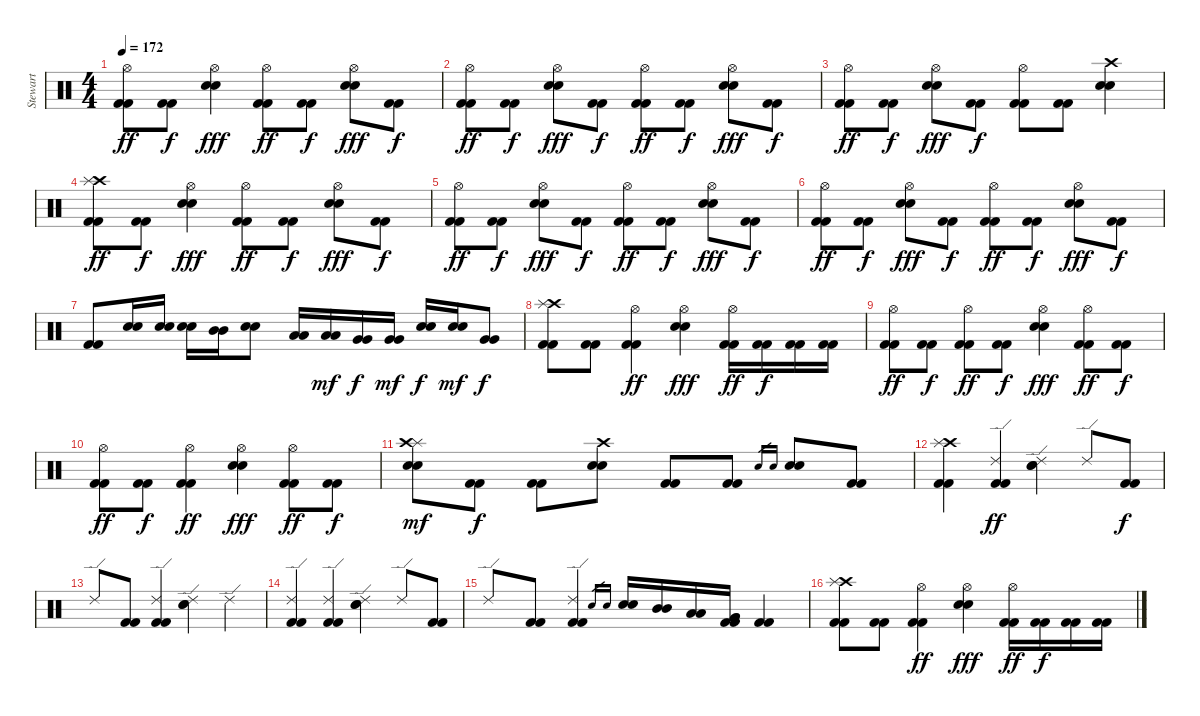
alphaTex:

\track ("Stewart" "Stewart") {instrument percussion}
\staff {score}
\articulation defaults
\ts (4 4)
\tempo 172
\clef neutral
\ks c
("Hi-Hat (open)" "Kick (hit) 2" "Kick (hit) 2").8{dy ff} ("Kick (hit) 2" "Kick (hit) 2").8{dy f} ("Hi-Hat (open)" "Electric Snare (hit)" "Electric Snare (hit)").4{dy fff} ("Hi-Hat (open)" "Kick (hit) 2" "Kick (hit) 2").8{dy ff} ("Kick (hit) 2" "Kick (hit) 2").8{dy f} ("Hi-Hat (open)" "Electric Snare (hit)" "Electric Snare (hit)").8{dy fff} ("Kick (hit) 2" "Kick (hit) 2").8{dy f} |
("Hi-Hat (open)" "Kick (hit) 2" "Kick (hit) 2").8{dy ff} ("Kick (hit) 2" "Kick (hit) 2").8{dy f} ("Hi-Hat (open)" "Electric Snare (hit)" "Electric Snare (hit)").8{dy fff} ("Kick (hit) 2" "Kick (hit) 2").8{dy f} ("Hi-Hat (open)" "Kick (hit) 2" "Kick (hit) 2").8{dy ff} ("Kick (hit) 2" "Kick (hit) 2").8{dy f} ("Hi-Hat (open)" "Electric Snare (hit)" "Electric Snare (hit)").8{dy fff} ("Kick (hit) 2" "Kick (hit) 2").8{dy f} |
("Hi-Hat (open)" "Kick (hit) 2" "Kick (hit) 2").8{dy ff} ("Kick (hit) 2" "Kick (hit) 2").8{dy f} ("Hi-Hat (open)" "Electric Snare (hit)" "Electric Snare (hit)").8{dy fff} ("Kick (hit) 2" "Kick (hit) 2").8{dy f} ("Hi-Hat (open)" "Kick (hit) 2" "Kick (hit) 2").8 ("Kick (hit) 2" "Kick (hit) 2").8 ("Crash high (hit)" "Electric Snare (hit)" "Electric Snare (hit)").4 |
("Crash high (hit)" "Splash (hit)" "Kick (hit) 2" "Kick (hit) 2").8{dy ff} ("Kick (hit) 2" "Kick (hit) 2").8{dy f} ("Hi-Hat (open)" "Electric Snare (hit)" "Electric Snare (hit)").4{dy fff} ("Hi-Hat (open)" "Kick (hit) 2" "Kick (hit) 2").8{dy ff} ("Kick (hit) 2" "Kick (hit) 2").8{dy f} ("Hi-Hat (open)" "Electric Snare (hit)" "Electric Snare (hit)").8{dy fff} ("Kick (hit) 2" "Kick (hit) 2").8{dy f} |
("Hi-Hat (open)" "Kick (hit) 2" "Kick (hit) 2").8{dy ff} ("Kick (hit) 2" "Kick (hit) 2").8{dy f} ("Hi-Hat (open)" "Electric Snare (hit)" "Electric Snare (hit)").8{dy fff} ("Kick (hit) 2" "Kick (hit) 2").8{dy f} ("Hi-Hat (open)" "Kick (hit) 2" "Kick (hit) 2").8{dy ff} ("Kick (hit) 2" "Kick (hit) 2").8{dy f} ("Hi-Hat (open)" "Electric Snare (hit)" "Electric Snare (hit)").8{dy fff} ("Kick (hit) 2" "Kick (hit) 2").8{dy f} |
("Hi-Hat (open)" "Kick (hit) 2" "Kick (hit) 2").8{dy ff} ("Kick (hit) 2" "Kick (hit) 2").8{dy f} ("Hi-Hat (open)" "Electric Snare (hit)" "Electric Snare (hit)").8{dy fff} ("Kick (hit) 2" "Kick (hit) 2").8{dy f} ("Hi-Hat (open)" "Kick (hit) 2" "Kick (hit) 2").8{dy ff} ("Kick (hit) 2" "Kick (hit) 2").8{dy f} ("Hi-Hat (open)" "Electric Snare (hit)" "Electric Snare (hit)").8{dy fff} ("Kick (hit) 2" "Kick (hit) 2").8{dy f} |
("Kick (hit) 2" "Kick (hit) 2").8 ("Electric Snare (hit)" "Electric Snare (hit)").16 ("Electric Snare (hit)" "Electric Snare (hit)").16 ("Electric Snare (hit)" "Electric Snare (hit)").16 ("Mid Tom (hit)" "Mid Tom (hit)").16 ("Electric Snare (hit)" "Electric Snare (hit)").8 ("Low Tom (hit)" "Low Tom (hit)").16 ("Low Tom (hit)" "Low Tom (hit)").16{dy mf} ("Very Low Tom (hit)" "Very Low Tom (hit)").16{dy f} ("Very Low Tom (hit)" "Very Low Tom (hit)").16{dy mf} ("Electric Snare (hit)" "Electric Snare (hit)").16{dy f} ("Electric Snare (hit)" "Electric Snare (hit)").16{dy mf} ("Very Low Tom (hit)" "Very Low Tom (hit)").8{dy f} |
("Crash high (hit)" "Splash (hit)" "Kick (hit) 2" "Kick (hit) 2").8 ("Kick (hit) 2" "Kick (hit) 2").8 ("Hi-Hat (open)" "Kick (hit) 2" "Kick (hit) 2").4{dy ff} ("Hi-Hat (open)" "Electric Snare (hit)" "Electric Snare (hit)").4{dy fff} ("Hi-Hat (open)" "Kick (hit) 2" "Kick (hit) 2").16{dy ff} ("Kick (hit) 2" "Kick (hit) 2").16{dy f} ("Kick (hit) 2" "Kick (hit) 2").16 ("Kick (hit) 2" "Kick (hit) 2").16 |
("Hi-Hat (open)" "Kick (hit) 2" "Kick (hit) 2").8{dy ff} ("Kick (hit) 2" "Kick (hit) 2").8{dy f} ("Hi-Hat (open)" "Kick (hit) 2" "Kick (hit) 2").8{dy ff} ("Kick (hit) 2" "Kick (hit) 2").8{dy f} ("Hi-Hat (open)" "Electric Snare (hit)" "Electric Snare (hit)").4{dy fff} ("Hi-Hat (open)" "Kick (hit) 2" "Kick (hit) 2").8{dy ff} ("Kick (hit) 2" "Kick (hit) 2").8{dy f} |
("Hi-Hat (open)" "Kick (hit) 2" "Kick (hit) 2").8{dy ff} ("Kick (hit) 2" "Kick (hit) 2").8{dy f} ("Hi-Hat (open)" "Kick (hit) 2" "Kick (hit) 2").4{dy ff} ("Hi-Hat (open)" "Electric Snare (hit)" "Electric Snare (hit)").4{dy fff} ("Hi-Hat (open)" "Kick (hit) 2" "Kick (hit) 2").8{dy ff} ("Kick (hit) 2" "Kick (hit) 2").8{dy f} |
("Splash (hit)" "Crash high (hit)" "Electric Snare (hit)" "Electric Snare (hit)").8{dy mf} ("Kick (hit) 2" "Kick (hit) 2").8{dy f} ("Kick (hit) 2" "Kick (hit) 2").8 ("Crash high (hit)" "Electric Snare (hit)" "Electric Snare (hit)").8 ("Kick (hit) 2" "Kick (hit) 2").8 ("Kick (hit) 2" "Kick (hit) 2").8 "Electric Snare (hit)".16{gr} "Electric Snare (hit)".16{gr} ("Electric Snare (hit)" "Electric Snare (hit)").8 ("Kick (hit) 2" "Kick (hit) 2").8 |
("Crash high (hit)" "Splash (hit)" "Kick (hit) 2" "Kick (hit) 2").4 ("Ride (edge) 2" "Kick (hit) 2" "Kick (hit) 2").4{dy ff} ("Ride (edge) 2" "Electric Snare (hit)" "Electric Snare (hit)").4 "Ride (edge) 2".8 ("Kick (hit) 2" "Kick (hit) 2").8{dy f} |
"Ride (edge) 2".8 ("Kick (hit) 2" "Kick (hit) 2").8 ("Ride (edge) 2" "Kick (hit) 2" "Kick (hit) 2").4 ("Ride (edge) 2" "Electric Snare (hit)" "Electric Snare (hit)").4 "Ride (edge) 2".4 |
("Ride (edge) 2" "Kick (hit) 2" "Kick (hit) 2").4 ("Ride (edge) 2" "Kick (hit) 2" "Kick (hit) 2").4 ("Ride (edge) 2" "Electric Snare (hit)" "Electric Snare (hit)").4 "Ride (edge) 2".8 ("Kick (hit) 2" "Kick (hit) 2").8 |
"Ride (edge) 2".8 ("Kick (hit) 2" "Kick (hit) 2").8 ("Ride (edge) 2" "Kick (hit) 2" "Kick (hit) 2").4 "Electric Snare (hit)".16{gr} "Electric Snare (hit)".16{gr} ("Electric Snare (hit)" "Electric Snare (hit)").16 ("Mid Tom (hit)" "Mid Tom (hit)").16 ("Low Tom (hit)" "Low Tom (hit)").16 ("Very Low Tom (hit)" "Very Low Tom (hit)" "Kick (hit) 2" "Kick (hit) 2").16 ("Kick (hit) 2" "Kick (hit) 2").4 |
("Crash high (hit)" "Splash (hit)" "Kick (hit) 2" "Kick (hit) 2").8 ("Kick (hit) 2" "Kick (hit) 2").8 ("Hi-Hat (open)" "Kick (hit) 2" "Kick (hit) 2").4{dy ff} ("Hi-Hat (open)" "Electric Snare (hit)" "Electric Snare (hit)").4{dy fff} ("Hi-Hat (open)" "Kick (hit) 2" "Kick (hit) 2").16{dy ff} ("Kick (hit) 2" "Kick (hit) 2").16{dy f} ("Kick (hit) 2" "Kick (hit) 2").16 ("Kick (hit) 2" "Kick (hit) 2").16
